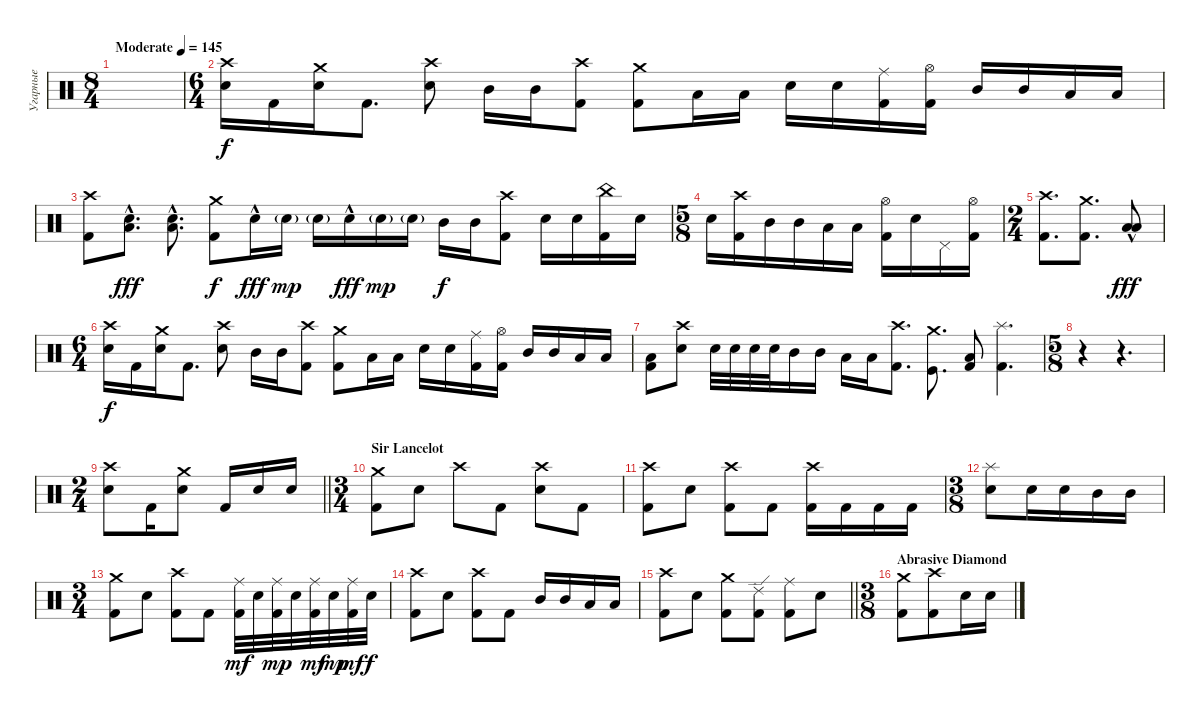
\track ("Угарные" "Угарные") {instrument percussion}
\staff {score}
\articulation defaults
\ts (8 4)
\tempo (145 "Moderate")
\clef neutral
\ks c
|
\ts (6 4)
("Electric Snare (hit)" "Crash high (hit)").16 "Kick (hit) 2".16 ("Electric Snare (hit)" "Crash medium (hit)").16 "Kick (hit) 2".8{d} ("Electric Snare (hit)" "Crash high (hit)").8 "Mid Tom (hit)".16 "Mid Tom (hit)".16 ("Kick (hit) 2" "Crash high (hit)").8 ("Kick (hit) 2" "Crash medium (hit)").8 "Low Floor Tom (hit)".16 "Low Floor Tom (hit)".16 "Electric Snare (hit)".16 "Electric Snare (hit)".16 ("Kick (hit) 2" "Ride (middle)").16 ("Kick (hit) 2" "Hi-Hat (open)").16 "Mid Tom (hit)".16 "Mid Tom (hit)".16 "Low Tom (hit)".16 "Low Tom (hit)".16 |
("Kick (hit) 2" "Crash high (hit)").8 ("Low Floor Tom (hit)"{hac} "Electric Snare (hit)"{hac}).8{d dy fff} ("Low Floor Tom (hit)"{hac} "Electric Snare (hit)"{hac}).8{d} ("Kick (hit) 2" "Crash medium (hit)").8{dy f} "Electric Snare (hit)"{hac}.16{dy fff} "Electric Snare (hit)"{g}.16{dy mp} "Electric Snare (hit)"{g}.16 "Electric Snare (hit)"{hac}.16{dy fff} "Electric Snare (hit)"{g}.16{dy mp} "Electric Snare (hit)"{g}.16 "Mid Tom (hit)".16{dy f} "Mid Tom (hit)".16 ("Kick (hit) 2" "Crash high (hit)").8 "Electric Snare (hit)".16 "Electric Snare (hit)".16 ("Kick (hit) 2" "China (hit)").16 "Electric Snare (hit)".16 |
\ts (5 8)
"Electric Snare (hit)".16 ("Kick (hit) 2" "Crash high (hit)").16 "Mid Tom (hit)".16 "Mid Tom (hit)".16 "Low Tom (hit)".16 "Low Tom (hit)".16 ("Kick (hit) 2" "Hi-Hat (open)").16 "Electric Snare (hit)".16 "Pedal Hi-Hat (hit)".16 ("Kick (hit) 2" "Hi-Hat (open)").16 |
\ts (2 4)
("Kick (hit) 2" "Crash high (hit)").8{d} ("Kick (hit) 2" "Crash medium (hit)").8{d} ("Low Floor Tom (hit)"{hac} "Low Tom (hit)"{hac}).8{dy fff} |
\ts (6 4)
("Electric Snare (hit)" "Crash high (hit)").16{dy f} "Kick (hit) 2".16 ("Electric Snare (hit)" "Crash medium (hit)").16 "Kick (hit) 2".8{d} ("Electric Snare (hit)" "Crash high (hit)").8 "Mid Tom (hit)".16 "Mid Tom (hit)".16 ("Kick (hit) 2" "Crash high (hit)").8 ("Kick (hit) 2" "Crash medium (hit)").8 "Low Floor Tom (hit)".16 "Low Floor Tom (hit)".16 "Electric Snare (hit)".16 "Electric Snare (hit)".16 ("Kick (hit) 2" "Ride (middle)").16 ("Kick (hit) 2" "Hi-Hat (open)").16 "Mid Tom (hit)".16 "Mid Tom (hit)".16 "Low Tom (hit)".16 "Low Tom (hit)".16 |
("Low Floor Tom (hit)" "Kick (hit) 2").8 ("Electric Snare (hit)" "Crash high (hit)").8 "Electric Snare (hit)".32 "Electric Snare (hit)".32 "Electric Snare (hit)".32 "Electric Snare (hit)".32 "Mid Tom (hit)".16 "Mid Tom (hit)".16 "Low Tom (hit)".16 "Low Tom (hit)".16 ("Kick (hit) 2" "Crash high (hit)").8{d} ("Kick (hit)" "Crash medium (hit)").8{d} ("Low Floor Tom (hit)" "Kick (hit) 2").8 ("Kick (hit) 2" "Splash (hit)").4{d} |
\ts (5 8)
r.4 r.4{d} |
\ts (2 4)
\barLineRight lightlight
("Electric Snare (hit)" "Crash high (hit)").8 "Kick (hit) 2".16 ("Electric Snare (hit)" "Crash medium (hit)").8 "Kick (hit) 2".16 "Electric Snare (hit)".16 "Electric Snare (hit)".16 |
\ts (3 4)
\section ("" "Sir Lancelot")
("Kick (hit) 2" "Crash medium (hit)").8 "Electric Snare (hit)".8 "Crash high (hit)".8 "Kick (hit) 2".8 ("Electric Snare (hit)" "Crash high (hit)").8 "Kick (hit) 2".8 |
("Kick (hit) 2" "Crash high (hit)").8 "Electric Snare (hit)".8 ("Kick (hit) 2" "Crash high (hit)").8 "Kick (hit) 2".8 ("Kick (hit) 2" "Crash high (hit)").16 "Kick (hit) 2".16 "Kick (hit) 2".16 "Kick (hit) 2".16 |
\ts (3 8)
("Electric Snare (hit)" "Splash (hit)").8 "Electric Snare (hit)".16 "Electric Snare (hit)".16 "Mid Tom (hit)".16 "Mid Tom (hit)".16 |
\ts (3 4)
("Kick (hit) 2" "Crash medium (hit)").8 "Electric Snare (hit)".8 ("Kick (hit) 2" "Crash high (hit)").8 "Kick (hit) 2".8 ("Ride (middle)" "Kick (hit) 2").32{dy mf} "Electric Snare (hit)".32 ("Ride (middle)" "Kick (hit) 2").32{dy mp} "Electric Snare (hit)".32 ("Ride (middle)" "Kick (hit) 2").32{dy mf} "Electric Snare (hit)".32{dy mp} ("Ride (middle)" "Kick (hit) 2").32{dy mf} "Electric Snare (hit)".32{dy f} |
("Kick (hit) 2" "Crash high (hit)").8 "Electric Snare (hit)".8 ("Kick (hit) 2" "Crash high (hit)").8 "Kick (hit) 2".8 "Mid Tom (hit)".16 "Mid Tom (hit)".16 "Low Tom (hit)".16 "Low Tom (hit)".16 |
\barLineRight lightlight
("Kick (hit) 2" "Crash high (hit)").8 "Electric Snare (hit)".8 ("Kick (hit) 2" "Crash medium (hit)").8 ("Kick (hit) 2" "Ride (edge) 2").8 ("Kick (hit) 2" "Ride (middle)").8 "Electric Snare (hit)".8 |
\ts (3 8)
\section ("" "Abrasive Diamond")
("Kick (hit) 2" "Crash medium (hit)").8 ("Kick (hit) 2" "Crash high (hit)").8 "Electric Snare (hit)".16 "Electric Snare (hit)".16
